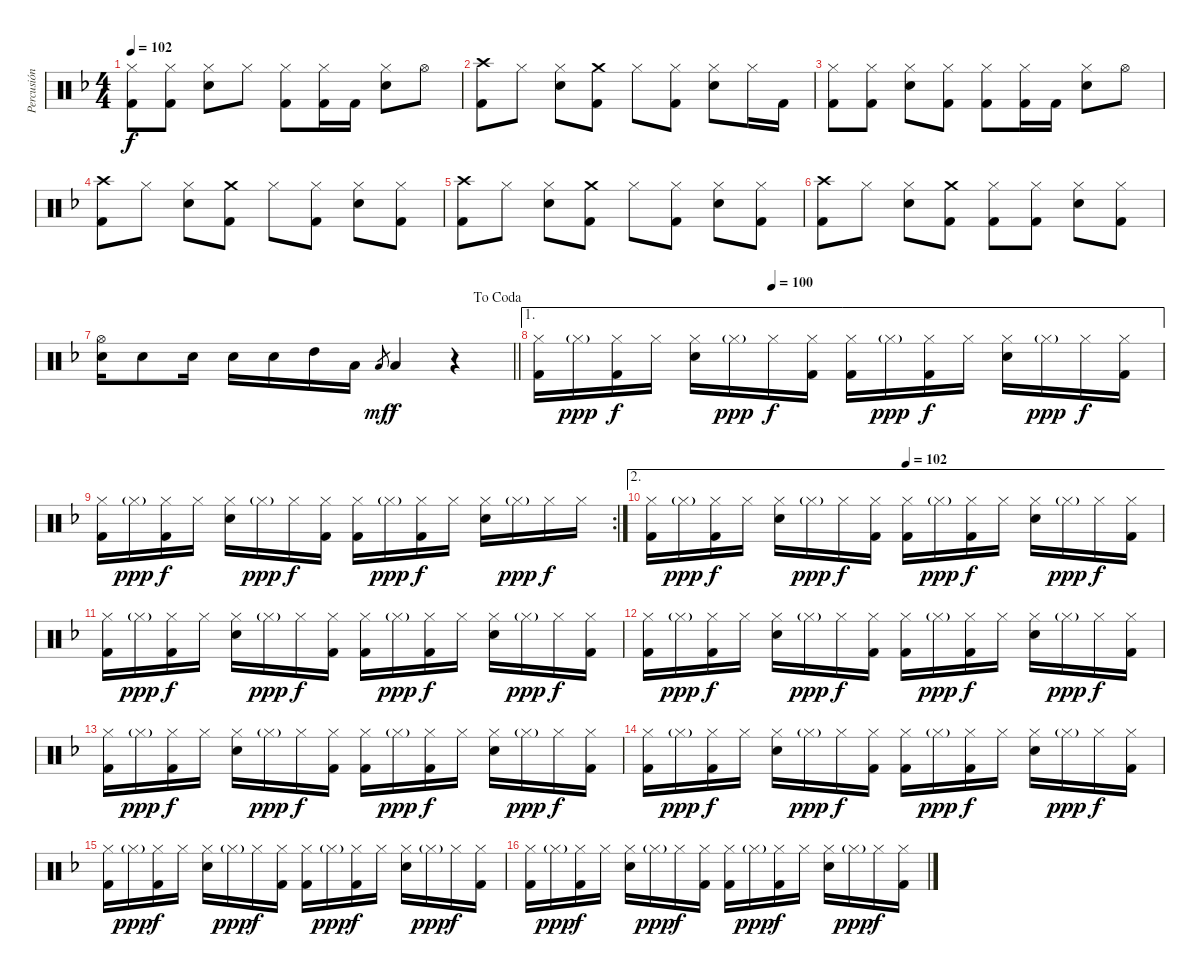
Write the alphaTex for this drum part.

\track ("Percusión" "Percusión") {instrument percussion}
\staff {score}
\articulation defaults
\ts (4 4)
\tempo 102
\clef neutral
\ks f
("Hi-Hat (closed)" "Kick (hit) 2").8{dy f} ("Hi-Hat (closed)" "Kick (hit) 2").8 ("Hi-Hat (closed)" "Snare (hit) 2").8 "Hi-Hat (closed)".8 ("Hi-Hat (closed)" "Kick (hit) 2").8 ("Hi-Hat (closed)" "Kick (hit) 2").16 "Kick (hit) 2".16 ("Hi-Hat (closed)" "Electric Snare (hit)").8 "Hi-Hat (open)".8 |
("Crash high (hit)" "Kick (hit) 2").8 "Hi-Hat (closed)".8 ("Hi-Hat (closed)" "Snare (hit) 2").8 ("Crash medium (hit)" "Kick (hit) 2").8 "Hi-Hat (closed)".8 ("Hi-Hat (closed)" "Kick (hit) 2").8 ("Hi-Hat (closed)" "Snare (hit) 2").8 "Hi-Hat (closed)".16 "Kick (hit) 2".16 |
("Hi-Hat (closed)" "Kick (hit) 2").8 ("Hi-Hat (closed)" "Kick (hit) 2").8 ("Hi-Hat (closed)" "Snare (hit) 2").8 ("Hi-Hat (closed)" "Kick (hit) 2").8 ("Hi-Hat (closed)" "Kick (hit) 2").8 ("Hi-Hat (closed)" "Kick (hit) 2").16 "Kick (hit) 2".16 ("Hi-Hat (closed)" "Electric Snare (hit)").8 "Hi-Hat (open)".8 |
("Crash high (hit)" "Kick (hit) 2").8 "Hi-Hat (closed)".8 ("Hi-Hat (closed)" "Snare (hit) 2").8 ("Crash medium (hit)" "Kick (hit) 2").8 "Hi-Hat (closed)".8 ("Hi-Hat (closed)" "Kick (hit) 2").8 ("Hi-Hat (closed)" "Snare (hit) 2").8 ("Hi-Hat (closed)" "Kick (hit) 2").8 |
("Crash high (hit)" "Kick (hit) 2").8 "Hi-Hat (closed)".8 ("Hi-Hat (closed)" "Snare (hit) 2").8 ("Crash medium (hit)" "Kick (hit) 2").8 "Hi-Hat (closed)".8 ("Hi-Hat (closed)" "Kick (hit) 2").8 ("Hi-Hat (closed)" "Snare (hit) 2").8 ("Hi-Hat (closed)" "Kick (hit) 2").8 |
("Crash high (hit)" "Kick (hit) 2").8 "Hi-Hat (closed)".8 ("Hi-Hat (closed)" "Snare (hit) 2").8 ("Crash medium (hit)" "Kick (hit) 2").8 ("Hi-Hat (closed)" "Kick (hit) 2").8 ("Hi-Hat (closed)" "Kick (hit) 2").8 ("Hi-Hat (closed)" "Snare (hit) 2").8 ("Hi-Hat (closed)" "Kick (hit) 2").8 |
\jump dacoda
\barLineRight lightlight
("Snare (hit) 2" "Hi-Hat (open)").16 "Snare (hit) 2".8 "Snare (hit) 2".16 "Snare (hit) 2".16 "Snare (hit) 2".16 "High Tom (hit)".16 "Low Tom (hit)".16 "Low Floor Tom (hit)"{h}.8{gr dy mf} "Low Tom (hit)".4{dy f} r.4 |
\ae 1
\tempo (100 0.375)
("Hi-Hat (closed)" "Kick (hit) 2").16 "Hi-Hat (closed)"{g}.16{dy ppp} ("Hi-Hat (closed)" "Kick (hit) 2").16{dy f} "Hi-Hat (closed)".16 ("Hi-Hat (closed)" "Snare (hit) 2").16 "Hi-Hat (closed)"{g}.16{dy ppp} "Hi-Hat (closed)".16{dy f} ("Hi-Hat (closed)" "Kick (hit) 2").16 ("Hi-Hat (closed)" "Kick (hit) 2").16 "Hi-Hat (closed)"{g}.16{dy ppp} ("Hi-Hat (closed)" "Kick (hit) 2").16{dy f} "Hi-Hat (closed)".16 ("Hi-Hat (closed)" "Snare (hit) 2").16 "Hi-Hat (closed)"{g}.16{dy ppp} "Hi-Hat (closed)".16{dy f} ("Hi-Hat (closed)" "Kick (hit) 2").16 |
\rc 2
("Hi-Hat (closed)" "Kick (hit) 2").16 "Hi-Hat (closed)"{g}.16{dy ppp} ("Hi-Hat (closed)" "Kick (hit) 2").16{dy f} "Hi-Hat (closed)".16 ("Hi-Hat (closed)" "Snare (hit) 2").16 "Hi-Hat (closed)"{g}.16{dy ppp} "Hi-Hat (closed)".16{dy f} ("Hi-Hat (closed)" "Kick (hit) 2").16 ("Hi-Hat (closed)" "Kick (hit) 2").16 "Hi-Hat (closed)"{g}.16{dy ppp} ("Hi-Hat (closed)" "Kick (hit) 2").16{dy f} "Hi-Hat (closed)".16 ("Hi-Hat (closed)" "Snare (hit) 2").16 "Hi-Hat (closed)"{g}.16{dy ppp} "Hi-Hat (closed)".16{dy f} "Hi-Hat (closed)".16 |
\ae 2
\tempo (102 0.5)
("Hi-Hat (closed)" "Kick (hit) 2").16 "Hi-Hat (closed)"{g}.16{dy ppp} ("Hi-Hat (closed)" "Kick (hit) 2").16{dy f} "Hi-Hat (closed)".16 ("Hi-Hat (closed)" "Snare (hit) 2").16 "Hi-Hat (closed)"{g}.16{dy ppp} "Hi-Hat (closed)".16{dy f} ("Hi-Hat (closed)" "Kick (hit) 2").16 ("Hi-Hat (closed)" "Kick (hit) 2").16 "Hi-Hat (closed)"{g}.16{dy ppp} ("Hi-Hat (closed)" "Kick (hit) 2").16{dy f} "Hi-Hat (closed)".16 ("Hi-Hat (closed)" "Snare (hit) 2").16 "Hi-Hat (closed)"{g}.16{dy ppp} "Hi-Hat (closed)".16{dy f} ("Hi-Hat (closed)" "Kick (hit) 2").16 |
("Hi-Hat (closed)" "Kick (hit) 2").16 "Hi-Hat (closed)"{g}.16{dy ppp} ("Hi-Hat (closed)" "Kick (hit) 2").16{dy f} "Hi-Hat (closed)".16 ("Hi-Hat (closed)" "Snare (hit) 2").16 "Hi-Hat (closed)"{g}.16{dy ppp} "Hi-Hat (closed)".16{dy f} ("Hi-Hat (closed)" "Kick (hit) 2").16 ("Hi-Hat (closed)" "Kick (hit) 2").16 "Hi-Hat (closed)"{g}.16{dy ppp} ("Hi-Hat (closed)" "Kick (hit) 2").16{dy f} "Hi-Hat (closed)".16 ("Hi-Hat (closed)" "Snare (hit) 2").16 "Hi-Hat (closed)"{g}.16{dy ppp} "Hi-Hat (closed)".16{dy f} ("Hi-Hat (closed)" "Kick (hit) 2").16 |
("Hi-Hat (closed)" "Kick (hit) 2").16 "Hi-Hat (closed)"{g}.16{dy ppp} ("Hi-Hat (closed)" "Kick (hit) 2").16{dy f} "Hi-Hat (closed)".16 ("Hi-Hat (closed)" "Snare (hit) 2").16 "Hi-Hat (closed)"{g}.16{dy ppp} "Hi-Hat (closed)".16{dy f} ("Hi-Hat (closed)" "Kick (hit) 2").16 ("Hi-Hat (closed)" "Kick (hit) 2").16 "Hi-Hat (closed)"{g}.16{dy ppp} ("Hi-Hat (closed)" "Kick (hit) 2").16{dy f} "Hi-Hat (closed)".16 ("Hi-Hat (closed)" "Snare (hit) 2").16 "Hi-Hat (closed)"{g}.16{dy ppp} "Hi-Hat (closed)".16{dy f} ("Hi-Hat (closed)" "Kick (hit) 2").16 |
("Hi-Hat (closed)" "Kick (hit) 2").16 "Hi-Hat (closed)"{g}.16{dy ppp} ("Hi-Hat (closed)" "Kick (hit) 2").16{dy f} "Hi-Hat (closed)".16 ("Hi-Hat (closed)" "Snare (hit) 2").16 "Hi-Hat (closed)"{g}.16{dy ppp} "Hi-Hat (closed)".16{dy f} ("Hi-Hat (closed)" "Kick (hit) 2").16 ("Hi-Hat (closed)" "Kick (hit) 2").16 "Hi-Hat (closed)"{g}.16{dy ppp} ("Hi-Hat (closed)" "Kick (hit) 2").16{dy f} "Hi-Hat (closed)".16 ("Hi-Hat (closed)" "Snare (hit) 2").16 "Hi-Hat (closed)"{g}.16{dy ppp} "Hi-Hat (closed)".16{dy f} ("Hi-Hat (closed)" "Kick (hit) 2").16 |
("Hi-Hat (closed)" "Kick (hit) 2").16 "Hi-Hat (closed)"{g}.16{dy ppp} ("Hi-Hat (closed)" "Kick (hit) 2").16{dy f} "Hi-Hat (closed)".16 ("Hi-Hat (closed)" "Snare (hit) 2").16 "Hi-Hat (closed)"{g}.16{dy ppp} "Hi-Hat (closed)".16{dy f} ("Hi-Hat (closed)" "Kick (hit) 2").16 ("Hi-Hat (closed)" "Kick (hit) 2").16 "Hi-Hat (closed)"{g}.16{dy ppp} ("Hi-Hat (closed)" "Kick (hit) 2").16{dy f} "Hi-Hat (closed)".16 ("Hi-Hat (closed)" "Snare (hit) 2").16 "Hi-Hat (closed)"{g}.16{dy ppp} "Hi-Hat (closed)".16{dy f} ("Hi-Hat (closed)" "Kick (hit) 2").16 |
("Hi-Hat (closed)" "Kick (hit) 2").16 "Hi-Hat (closed)"{g}.16{dy ppp} ("Hi-Hat (closed)" "Kick (hit) 2").16{dy f} "Hi-Hat (closed)".16 ("Hi-Hat (closed)" "Snare (hit) 2").16 "Hi-Hat (closed)"{g}.16{dy ppp} "Hi-Hat (closed)".16{dy f} ("Hi-Hat (closed)" "Kick (hit) 2").16 ("Hi-Hat (closed)" "Kick (hit) 2").16 "Hi-Hat (closed)"{g}.16{dy ppp} ("Hi-Hat (closed)" "Kick (hit) 2").16{dy f} "Hi-Hat (closed)".16 ("Hi-Hat (closed)" "Snare (hit) 2").16 "Hi-Hat (closed)"{g}.16{dy ppp} "Hi-Hat (closed)".16{dy f} ("Hi-Hat (closed)" "Kick (hit) 2").16 |
("Hi-Hat (closed)" "Kick (hit) 2").16 "Hi-Hat (closed)"{g}.16{dy ppp} ("Hi-Hat (closed)" "Kick (hit) 2").16{dy f} "Hi-Hat (closed)".16 ("Hi-Hat (closed)" "Snare (hit) 2").16 "Hi-Hat (closed)"{g}.16{dy ppp} "Hi-Hat (closed)".16{dy f} ("Hi-Hat (closed)" "Kick (hit) 2").16 ("Hi-Hat (closed)" "Kick (hit) 2").16 "Hi-Hat (closed)"{g}.16{dy ppp} ("Hi-Hat (closed)" "Kick (hit) 2").16{dy f} "Hi-Hat (closed)".16 ("Hi-Hat (closed)" "Snare (hit) 2").16 "Hi-Hat (closed)"{g}.16{dy ppp} "Hi-Hat (closed)".16{dy f} ("Hi-Hat (closed)" "Kick (hit) 2").16
